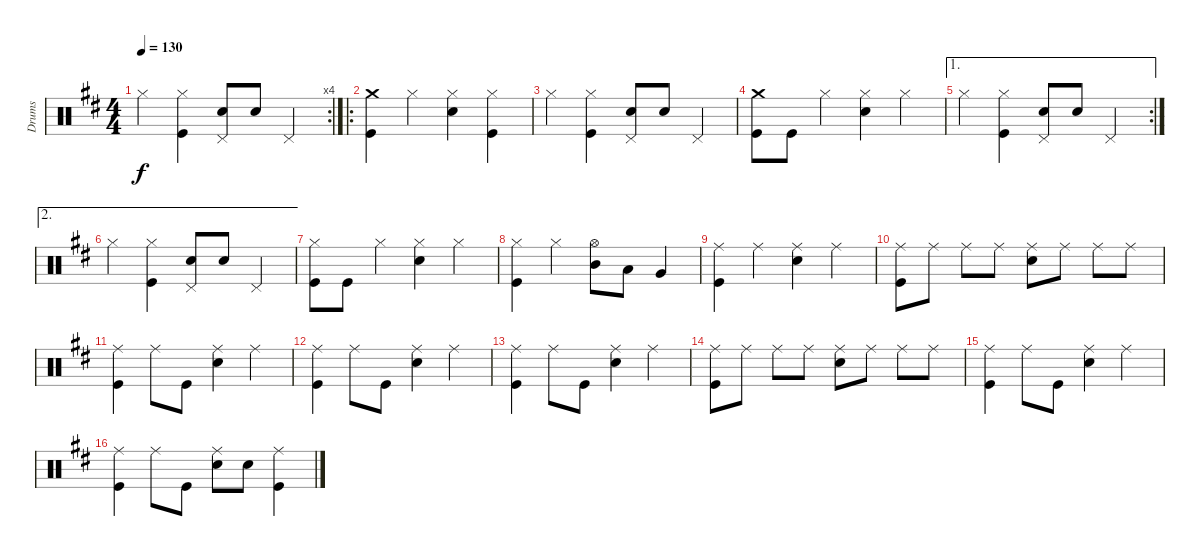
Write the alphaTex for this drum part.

\track ("Drums" "Drums") {instrument percussion}
\staff {score}
\articulation defaults
\rc 4
\ts (4 4)
\tempo 130
\clef neutral
\ks d "Hi-Hat (closed)".4{dy f}
("Hi-Hat (closed)" "Kick (hit)").4 ("Pedal Hi-Hat (hit)" "Snare (hit) 2").8 "Snare (hit) 2".8 "Pedal Hi-Hat (hit)".4 |
\ro
("Crash medium (hit)" "Kick (hit)").4 "Hi-Hat (closed)".4 ("Hi-Hat (closed)" "Snare (hit) 2").4 ("Hi-Hat (closed)" "Kick (hit)").4 |
"Hi-Hat (closed)".4 ("Hi-Hat (closed)" "Kick (hit)").4 ("Pedal Hi-Hat (hit)" "Snare (hit) 2").8 "Snare (hit) 2".8 "Pedal Hi-Hat (hit)".4 |
("Crash medium (hit)" "Kick (hit)").8 "Kick (hit)".8 "Hi-Hat (closed)".4 ("Hi-Hat (closed)" "Snare (hit) 2").4 "Hi-Hat (closed)".4 |
\ae 1
\rc 2 "Hi-Hat (closed)".4
("Hi-Hat (closed)" "Kick (hit)").4 ("Pedal Hi-Hat (hit)" "Snare (hit) 2").8 "Snare (hit) 2".8 "Pedal Hi-Hat (hit)".4 |
\ae 2 "Hi-Hat (closed)".4
("Hi-Hat (closed)" "Kick (hit)").4 ("Pedal Hi-Hat (hit)" "Snare (hit) 2").8 "Snare (hit) 2".8 "Pedal Hi-Hat (hit)".4 |
("Hi-Hat (closed)" "Kick (hit)").8 "Kick (hit)".8 "Hi-Hat (closed)".4 ("Hi-Hat (closed)" "Snare (hit) 2").4 "Hi-Hat (closed)".4 |
("Hi-Hat (closed)" "Kick (hit)").4 "Hi-Hat (closed)".4 ("Hi-Hat (open)" "Mid Tom (hit)").8 "Low Tom (hit)".8 "Very Low Tom (hit)".4 |
("Ride (middle)" "Kick (hit)").4 "Ride (middle)".4 ("Ride (middle)" "Snare (hit) 2").4 "Ride (middle)".4 |
("Ride (middle)" "Kick (hit)").8 "Ride (middle)".8 "Ride (middle)".8 "Ride (middle)".8 ("Ride (middle)" "Snare (hit) 2").8 "Ride (middle)".8 "Ride (middle)".8 "Ride (middle)".8 |
("Ride (middle)" "Kick (hit)").4 "Ride (middle)".8 "Kick (hit)".8 ("Ride (middle)" "Snare (hit) 2").4 "Ride (middle)".4 |
("Ride (middle)" "Kick (hit)").4 "Ride (middle)".8 "Kick (hit)".8 ("Ride (middle)" "Snare (hit) 2").4 "Ride (middle)".4 |
("Ride (middle)" "Kick (hit)").4 "Ride (middle)".8 "Kick (hit)".8 ("Ride (middle)" "Snare (hit) 2").4 "Ride (middle)".4 |
("Ride (middle)" "Kick (hit)").8 "Ride (middle)".8 "Ride (middle)".8 "Ride (middle)".8 ("Ride (middle)" "Snare (hit) 2").8 "Ride (middle)".8 "Ride (middle)".8 "Ride (middle)".8 |
("Ride (middle)" "Kick (hit)").4 "Ride (middle)".8 "Kick (hit)".8 ("Ride (middle)" "Snare (hit) 2").4 "Ride (middle)".4 |
("Ride (middle)" "Kick (hit)").4 "Ride (middle)".8 "Kick (hit)".8 ("Ride (middle)" "Snare (hit) 2").8 "Snare (hit) 2".8 ("Ride (middle)" "Kick (hit)").4
